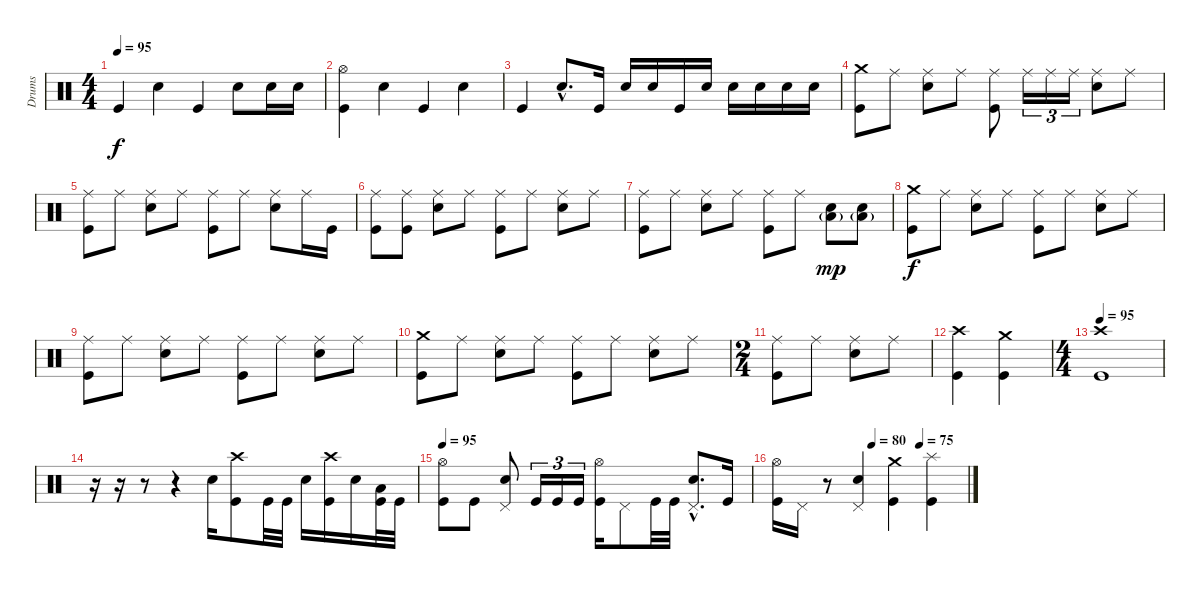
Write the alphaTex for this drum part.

\track ("Drums" "Drums") {instrument percussion}
\staff {score}
\articulation defaults
\ts (4 4)
\tempo 95
\clef neutral
\ks c "Kick (hit)".4{dy f} "Electric Snare (hit)".4 "Kick (hit)".4 "Electric Snare (hit)".8 "Electric Snare (hit)".16 "Electric Snare (hit)".16
|
("Hi-Hat (open)" "Kick (hit)").4 "Electric Snare (hit)".4 "Kick (hit)".4 "Electric Snare (hit)".4 |
"Kick (hit)".4 "Electric Snare (hit)"{hac}.8{d} "Kick (hit)".16 "Electric Snare (hit)".16 "Electric Snare (hit)".16 "Kick (hit)".16 "Electric Snare (hit)".16 "Electric Snare (hit)".16 "Electric Snare (hit)".16 "Electric Snare (hit)".16 "Electric Snare (hit)".16 |
("Crash medium (hit)" "Kick (hit)").8 "Ride (middle)".8 ("Ride (middle)" "Electric Snare (hit)").8 "Ride (middle)".8 ("Ride (middle)" "Kick (hit)").8 "Ride (middle)".16{tu (3 2)} "Ride (middle)".16{tu (3 2)} "Ride (middle)".16{tu (3 2)} ("Ride (middle)" "Electric Snare (hit)").8 "Ride (middle)".8 |
("Ride (middle)" "Kick (hit)").8 "Ride (middle)".8 ("Ride (middle)" "Electric Snare (hit)").8 "Ride (middle)".8 ("Ride (middle)" "Kick (hit)").8 "Ride (middle)".8 ("Ride (middle)" "Electric Snare (hit)").8 "Ride (middle)".16 "Kick (hit)".16 |
("Ride (middle)" "Kick (hit)").8 ("Ride (middle)" "Kick (hit)").8 ("Ride (middle)" "Electric Snare (hit)").8 "Ride (middle)".8 ("Ride (middle)" "Kick (hit)").8 "Ride (middle)".8 ("Ride (middle)" "Electric Snare (hit)").8 "Ride (middle)".8 |
("Ride (middle)" "Kick (hit)").8 "Ride (middle)".8 ("Ride (middle)" "Electric Snare (hit)").8 "Ride (middle)".8 ("Ride (middle)" "Kick (hit)").8 "Ride (middle)".8 ("Electric Snare (hit)" "Low Floor Tom (hit)"{g}).8{dy mp} ("Electric Snare (hit)" "Low Floor Tom (hit)"{g}).8 |
("Crash medium (hit)" "Kick (hit)").8{dy f} "Ride (middle)".8 ("Ride (middle)" "Electric Snare (hit)").8 "Ride (middle)".8 ("Ride (middle)" "Kick (hit)").8 "Ride (middle)".8 ("Ride (middle)" "Electric Snare (hit)").8 "Ride (middle)".8 |
("Ride (middle)" "Kick (hit)").8 "Ride (middle)".8 ("Ride (middle)" "Electric Snare (hit)").8 "Ride (middle)".8 ("Ride (middle)" "Kick (hit)").8 "Ride (middle)".8 ("Ride (middle)" "Electric Snare (hit)").8 "Ride (middle)".8 |
("Crash medium (hit)" "Kick (hit)").8 "Ride (middle)".8 ("Ride (middle)" "Electric Snare (hit)").8 "Ride (middle)".8 ("Ride (middle)" "Kick (hit)").8 "Ride (middle)".8 ("Ride (middle)" "Electric Snare (hit)").8 "Ride (middle)".8 |
\ts (2 4)
("Ride (middle)" "Kick (hit)").8 "Ride (middle)".8 ("Ride (middle)" "Electric Snare (hit)").8 "Ride (middle)".8 |
("Crash high (hit)" "Kick (hit)").4 ("Crash medium (hit)" "Kick (hit)").4 |
\ts (4 4)
\tempo 95
("Crash high (hit)" "Kick (hit)").1 |
r.16 r.16 r.8 r.4 "Electric Snare (hit)".16 ("Crash high (hit)" "Kick (hit)").8 "Kick (hit)".32 "Kick (hit)".32 "Electric Snare (hit)".16 ("Crash high (hit)" "Kick (hit)").16 "Electric Snare (hit)".16 ("Low Floor Tom (hit)" "Kick (hit)").32 "Kick (hit)".32 |
\tempo 95
("Hi-Hat (open)" "Kick (hit)").8 "Kick (hit)".8 ("Pedal Hi-Hat (hit)" "Electric Snare (hit)").8 "Kick (hit)".16{tu (3 2)} "Kick (hit)".16{tu (3 2)} "Kick (hit)".16{tu (3 2)} ("Hi-Hat (open)" "Kick (hit)").16 "Pedal Hi-Hat (hit)".8 "Kick (hit)".32 "Kick (hit)".32 ("Pedal Hi-Hat (hit)"{hac} "Electric Snare (hit)"{hac}).8{d} "Kick (hit)".16 |
\tempo (80 0.5)
\tempo (75 0.75)
("Hi-Hat (open)" "Kick (hit)").16 "Pedal Hi-Hat (hit)".16 r.8 ("Pedal Hi-Hat (hit)" "Electric Snare (hit)").4 ("Crash medium (hit)" "Kick (hit)").4 ("Splash (hit)" "Kick (hit)").4
